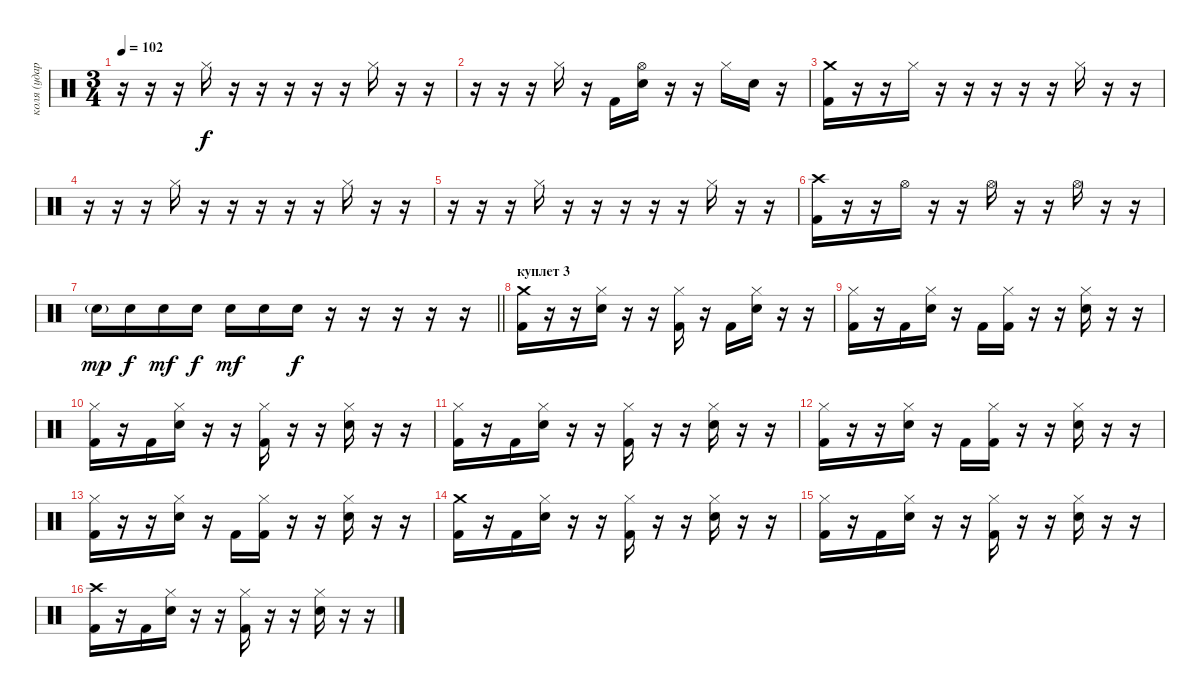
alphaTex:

\track ("коля (ударные)" "коля (удар") {instrument percussion}
\staff {score}
\articulation defaults
\ts (3 4)
\tempo 102
\clef neutral
\ks c
r.16{dy f} r.16 r.16 "Hi-Hat (closed)".16 r.16 r.16 r.16 r.16 r.16 "Hi-Hat (closed)".16 r.16 r.16 |
r.16 r.16 r.16 "Hi-Hat (closed)".16 r.16 "Kick (hit) 2".16 ("Snare (hit) 2" "Hi-Hat (open)").16 r.16 r.16 "Hi-Hat (closed)".16 "Snare (hit) 2".16 r.16 |
("Kick (hit) 2" "Crash medium (hit)").16 r.16 r.16 "Hi-Hat (closed)".16 r.16 r.16 r.16 r.16 r.16 "Hi-Hat (closed)".16 r.16 r.16 |
r.16 r.16 r.16 "Hi-Hat (closed)".16 r.16 r.16 r.16 r.16 r.16 "Hi-Hat (closed)".16 r.16 r.16 |
r.16 r.16 r.16 "Hi-Hat (closed)".16 r.16 r.16 r.16 r.16 r.16 "Hi-Hat (closed)".16 r.16 r.16 |
("Kick (hit) 2" "Crash high (hit)").16 r.16 r.16 "Hi-Hat (open)".16 r.16 r.16 "Hi-Hat (open)".16 r.16 r.16 "Hi-Hat (open)".16 r.16 r.16 |
\barLineRight lightlight "Snare (hit) 2"{g}.16{dy mp} "Snare (hit) 2".16{dy f} "Snare (hit) 2".16{dy mf} "Snare (hit) 2".16{dy f} "Snare (hit) 2".16{dy mf} "Snare (hit) 2".16 "Snare (hit) 2".16{dy f}
r.16 r.16 r.16 r.16 r.16 |
\section ("" "куплет 3")
("Kick (hit) 2" "Crash medium (hit)").16 r.16 r.16 ("Snare (hit) 2" "Hi-Hat (closed)").16 r.16 r.16 ("Kick (hit) 2" "Hi-Hat (closed)").16 r.16 "Kick (hit) 2".16 ("Snare (hit) 2" "Hi-Hat (closed)").16 r.16 r.16 |
("Kick (hit) 2" "Hi-Hat (closed)").16 r.16 "Kick (hit) 2".16 ("Snare (hit) 2" "Hi-Hat (closed)").16 r.16 "Kick (hit) 2".16 ("Kick (hit) 2" "Hi-Hat (closed)").16 r.16 r.16 ("Snare (hit) 2" "Hi-Hat (closed)").16 r.16 r.16 |
("Kick (hit) 2" "Hi-Hat (closed)").16 r.16 "Kick (hit) 2".16 ("Snare (hit) 2" "Hi-Hat (closed)").16 r.16 r.16 ("Kick (hit) 2" "Hi-Hat (closed)").16 r.16 r.16 ("Snare (hit) 2" "Hi-Hat (closed)").16 r.16 r.16 |
("Kick (hit) 2" "Hi-Hat (closed)").16 r.16 "Kick (hit) 2".16 ("Snare (hit) 2" "Hi-Hat (closed)").16 r.16 r.16 ("Kick (hit) 2" "Hi-Hat (closed)").16 r.16 r.16 ("Snare (hit) 2" "Hi-Hat (closed)").16 r.16 r.16 |
("Kick (hit) 2" "Hi-Hat (closed)").16 r.16 r.16 ("Snare (hit) 2" "Hi-Hat (closed)").16 r.16 "Kick (hit) 2".16 ("Kick (hit) 2" "Hi-Hat (closed)").16 r.16 r.16 ("Snare (hit) 2" "Hi-Hat (closed)").16 r.16 r.16 |
("Kick (hit) 2" "Hi-Hat (closed)").16 r.16 r.16 ("Snare (hit) 2" "Hi-Hat (closed)").16 r.16 "Kick (hit) 2".16 ("Kick (hit) 2" "Hi-Hat (closed)").16 r.16 r.16 ("Snare (hit) 2" "Hi-Hat (closed)").16 r.16 r.16 |
("Kick (hit) 2" "Crash medium (hit)").16 r.16 "Kick (hit) 2".16 ("Snare (hit) 2" "Hi-Hat (closed)").16 r.16 r.16 ("Kick (hit) 2" "Hi-Hat (closed)").16 r.16 r.16 ("Snare (hit) 2" "Hi-Hat (closed)").16 r.16 r.16 |
("Kick (hit) 2" "Hi-Hat (closed)").16 r.16 "Kick (hit) 2".16 ("Snare (hit) 2" "Hi-Hat (closed)").16 r.16 r.16 ("Kick (hit) 2" "Hi-Hat (closed)").16 r.16 r.16 ("Snare (hit) 2" "Hi-Hat (closed)").16 r.16 r.16 |
("Kick (hit) 2" "Crash high (hit)").16 r.16 "Kick (hit) 2".16 ("Snare (hit) 2" "Hi-Hat (closed)").16 r.16 r.16 ("Kick (hit) 2" "Hi-Hat (closed)").16 r.16 r.16 ("Snare (hit) 2" "Hi-Hat (closed)").16 r.16 r.16
